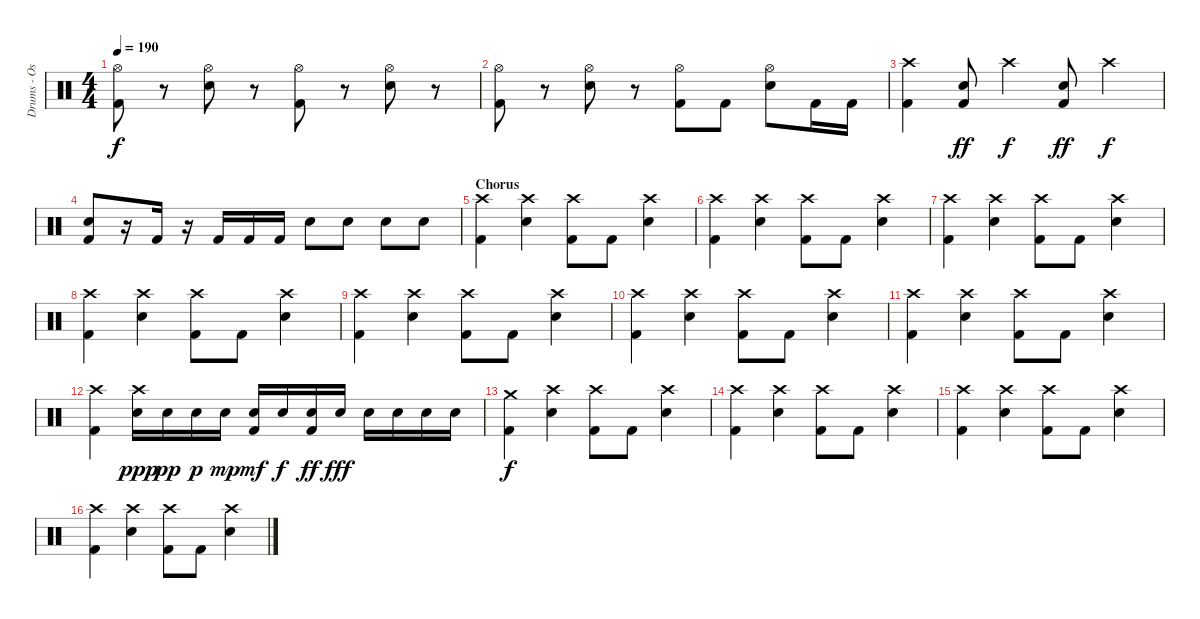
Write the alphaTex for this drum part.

\track ("Drums - Oskar Karlsson" "Drums - Os") {instrument percussion}
\staff {score}
\articulation defaults
\ts (4 4)
\tempo 190
\clef neutral
\ks c
("Hi-Hat (open)" "Kick (hit) 2").8{dy f} r.8 ("Hi-Hat (open)" "Electric Snare (hit)").8 r.8 ("Hi-Hat (open)" "Kick (hit) 2").8 r.8 ("Hi-Hat (open)" "Electric Snare (hit)").8 r.8 |
("Hi-Hat (open)" "Kick (hit) 2").8 r.8 ("Hi-Hat (open)" "Electric Snare (hit)").8 r.8 ("Hi-Hat (open)" "Kick (hit) 2").8 "Kick (hit) 2".8 ("Hi-Hat (open)" "Electric Snare (hit)").8 "Kick (hit) 2".16 "Kick (hit) 2".16 |
("Crash high (hit)" "Kick (hit) 2").4 ("Electric Snare (hit)" "Kick (hit) 2").8{dy ff} "Crash high (hit)".4{dy f} ("Electric Snare (hit)" "Kick (hit) 2").8{dy ff} "Crash high (hit)".4{dy f} |
("Electric Snare (hit)" "Kick (hit) 2").8 r.16 "Kick (hit) 2".16 r.16 "Kick (hit) 2".16 "Kick (hit) 2".16 "Kick (hit) 2".16 "Electric Snare (hit)".8 "Electric Snare (hit)".8 "Electric Snare (hit)".8 "Electric Snare (hit)".8 |
\section ("" "Chorus")
("Crash high (hit)" "Kick (hit) 2").4 ("Crash high (hit)" "Electric Snare (hit)").4 ("Crash high (hit)" "Kick (hit) 2").8 "Kick (hit) 2".8 ("Crash high (hit)" "Electric Snare (hit)").4 |
("Crash high (hit)" "Kick (hit) 2").4 ("Crash high (hit)" "Electric Snare (hit)").4 ("Crash high (hit)" "Kick (hit) 2").8 "Kick (hit) 2".8 ("Crash high (hit)" "Electric Snare (hit)").4 |
("Crash high (hit)" "Kick (hit) 2").4 ("Crash high (hit)" "Electric Snare (hit)").4 ("Crash high (hit)" "Kick (hit) 2").8 "Kick (hit) 2".8 ("Crash high (hit)" "Electric Snare (hit)").4 |
("Crash high (hit)" "Kick (hit) 2").4 ("Crash high (hit)" "Electric Snare (hit)").4 ("Crash high (hit)" "Kick (hit) 2").8 "Kick (hit) 2".8 ("Crash high (hit)" "Electric Snare (hit)").4 |
("Crash high (hit)" "Kick (hit) 2").4 ("Crash high (hit)" "Electric Snare (hit)").4 ("Crash high (hit)" "Kick (hit) 2").8 "Kick (hit) 2".8 ("Crash high (hit)" "Electric Snare (hit)").4 |
("Crash high (hit)" "Kick (hit) 2").4 ("Crash high (hit)" "Electric Snare (hit)").4 ("Crash high (hit)" "Kick (hit) 2").8 "Kick (hit) 2".8 ("Crash high (hit)" "Electric Snare (hit)").4 |
("Crash high (hit)" "Kick (hit) 2").4 ("Crash high (hit)" "Electric Snare (hit)").4 ("Crash high (hit)" "Kick (hit) 2").8 "Kick (hit) 2".8 ("Crash high (hit)" "Electric Snare (hit)").4 |
("Crash high (hit)" "Kick (hit) 2").4 ("Crash high (hit)" "Electric Snare (hit)").16{dy ppp} "Electric Snare (hit)".16{dy pp} "Electric Snare (hit)".16{dy p} "Electric Snare (hit)".16{dy mp} ("Electric Snare (hit)" "Kick (hit) 2").16{dy mf} "Electric Snare (hit)".16{dy f} ("Electric Snare (hit)" "Kick (hit) 2").16{dy ff} "Electric Snare (hit)".16{dy fff} "Electric Snare (hit)".16 "Electric Snare (hit)".16 "Electric Snare (hit)".16 "Electric Snare (hit)".16 |
("Crash medium (hit)" "Kick (hit) 2").4{dy f} ("Crash high (hit)" "Electric Snare (hit)").4 ("Crash high (hit)" "Kick (hit) 2").8 "Kick (hit) 2".8 ("Crash high (hit)" "Electric Snare (hit)").4 |
("Crash high (hit)" "Kick (hit) 2").4 ("Crash high (hit)" "Electric Snare (hit)").4 ("Crash high (hit)" "Kick (hit) 2").8 "Kick (hit) 2".8 ("Crash high (hit)" "Electric Snare (hit)").4 |
("Crash high (hit)" "Kick (hit) 2").4 ("Crash high (hit)" "Electric Snare (hit)").4 ("Crash high (hit)" "Kick (hit) 2").8 "Kick (hit) 2".8 ("Crash high (hit)" "Electric Snare (hit)").4 |
("Crash high (hit)" "Kick (hit) 2").4 ("Crash high (hit)" "Electric Snare (hit)").4 ("Crash high (hit)" "Kick (hit) 2").8 "Kick (hit) 2".8 ("Crash high (hit)" "Electric Snare (hit)").4
